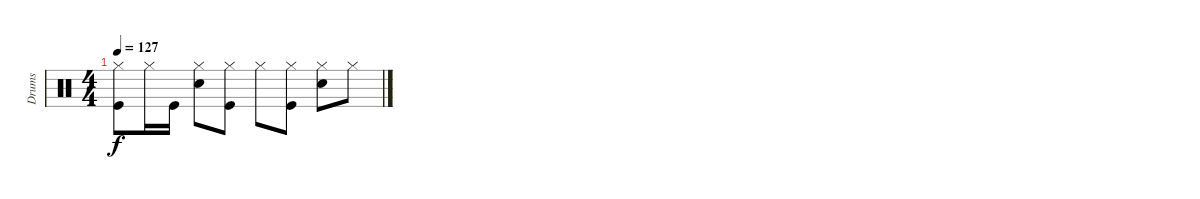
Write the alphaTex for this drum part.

\track ("Drums" "Drums") {instrument percussion}
\staff {score}
\articulation defaults
\ts (4 4)
\tempo 127
\clef neutral
\ks c
("Hi-Hat (closed)" "Kick (hit)").8{dy f volume 0} "Hi-Hat (closed)".16 "Kick (hit)".16 ("Electric Snare (hit)" "Hi-Hat (closed)").8 ("Hi-Hat (closed)" "Kick (hit)").8 "Hi-Hat (closed)".8 ("Hi-Hat (closed)" "Kick (hit)").8 ("Electric Snare (hit)" "Hi-Hat (closed)").8 "Hi-Hat (closed)".8
